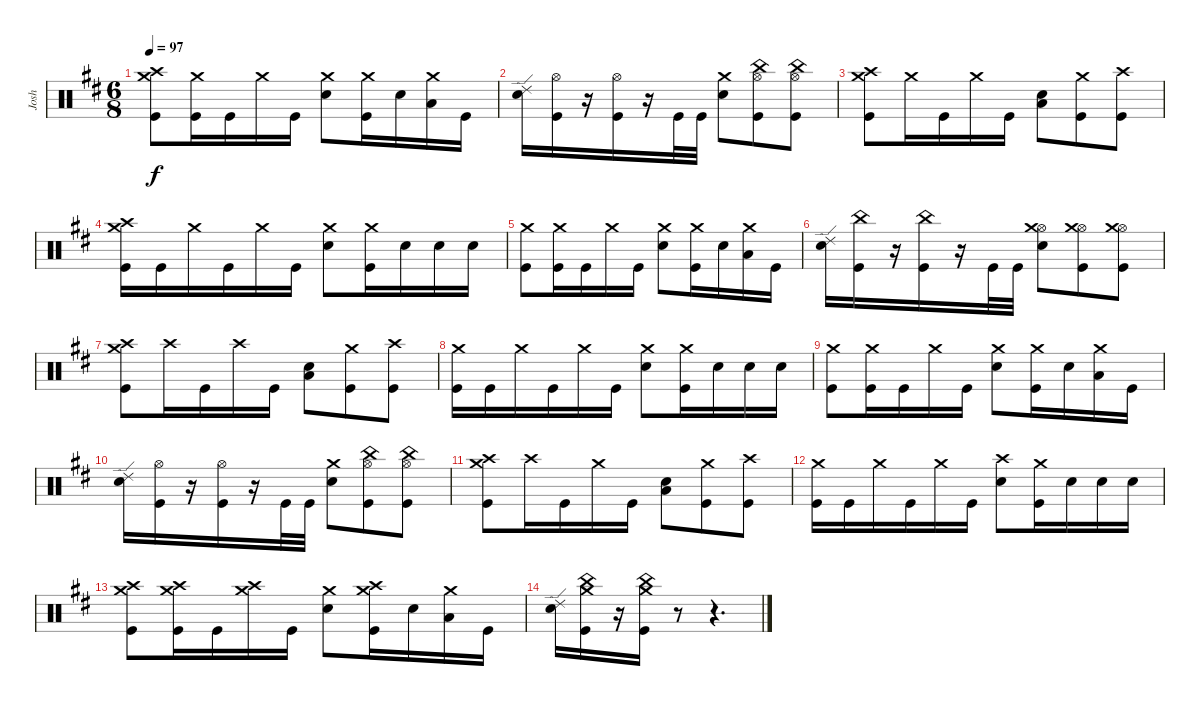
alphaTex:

\track ("Josh" "Josh") {instrument percussion}
\staff {score}
\articulation defaults
\ts (6 8)
\tempo 97
\clef neutral
\ks bminor
("Kick (hit)" "Crash medium (hit)" "Crash high (hit)").8{dy f} ("Kick (hit)" "Crash medium (hit)").16 "Kick (hit)".16 "Crash medium (hit)".16 "Kick (hit)".16 ("Snare (hit) 2" "Crash medium (hit)").8 ("Kick (hit)" "Crash medium (hit)").16 "Snare (hit) 2".16 ("Low Floor Tom (hit)" "Crash medium (hit)").16 "Kick (hit)".16 |
("Snare (hit) 2" "Ride (edge) 2").16 ("Kick (hit)" "Hi-Hat (open)").16 r.16 ("Kick (hit)" "Hi-Hat (open)").16 r.16 "Kick (hit)".32 "Kick (hit)".32 ("Snare (hit) 2" "Crash medium (hit)").8 ("Kick (hit)" "China (hit)" "Hi-Hat (open)").8 ("Kick (hit)" "China (hit)" "Hi-Hat (open)").8 |
("Kick (hit)" "Crash medium (hit)" "Crash high (hit)").8 "Crash medium (hit)".16 "Kick (hit)".16 "Crash medium (hit)".16 "Kick (hit)".16 ("Snare (hit) 2" "Low Floor Tom (hit)").8 ("Kick (hit)" "Crash medium (hit)").8 ("Kick (hit)" "Crash high (hit)").8 |
("Kick (hit)" "Crash medium (hit)" "Crash high (hit)").16 "Kick (hit)".16 "Crash medium (hit)".16 "Kick (hit)".16 "Crash medium (hit)".16 "Kick (hit)".16 ("Snare (hit) 2" "Crash medium (hit)").8 ("Kick (hit)" "Crash medium (hit)").16 "Snare (hit) 2".16 "Snare (hit) 2".16 "Snare (hit) 2".16 |
("Kick (hit)" "Crash medium (hit)").8 ("Kick (hit)" "Crash medium (hit)").16 "Kick (hit)".16 "Crash medium (hit)".16 "Kick (hit)".16 ("Snare (hit) 2" "Crash medium (hit)").8 ("Kick (hit)" "Crash medium (hit)").16 "Snare (hit) 2".16 ("Low Floor Tom (hit)" "Crash medium (hit)").16 "Kick (hit)".16 |
("Snare (hit) 2" "Ride (edge) 2").16 ("Kick (hit)" "China (hit)").16 r.16 ("Kick (hit)" "China (hit)").16 r.16 "Kick (hit)".32 "Kick (hit)".32 ("Snare (hit) 2" "Hi-Hat (open)" "Crash medium (hit)").8 ("Kick (hit)" "Hi-Hat (open)" "Crash medium (hit)").8 ("Kick (hit)" "Hi-Hat (open)" "Crash medium (hit)").8 |
("Kick (hit)" "Crash medium (hit)" "Crash high (hit)").8 "Crash high (hit)".16 "Kick (hit)".16 "Crash high (hit)".16 "Kick (hit)".16 ("Snare (hit) 2" "Low Floor Tom (hit)").8 ("Kick (hit)" "Crash medium (hit)").8 ("Kick (hit)" "Crash high (hit)").8 |
("Kick (hit)" "Crash medium (hit)").16 "Kick (hit)".16 "Crash medium (hit)".16 "Kick (hit)".16 "Crash medium (hit)".16 "Kick (hit)".16 ("Snare (hit) 2" "Crash medium (hit)").8 ("Kick (hit)" "Crash medium (hit)").16 "Snare (hit) 2".16 "Snare (hit) 2".16 "Snare (hit) 2".16 |
("Kick (hit)" "Crash medium (hit)").8 ("Kick (hit)" "Crash medium (hit)").16 "Kick (hit)".16 "Crash medium (hit)".16 "Kick (hit)".16 ("Snare (hit) 2" "Crash medium (hit)").8 ("Kick (hit)" "Crash medium (hit)").16 "Snare (hit) 2".16 ("Low Floor Tom (hit)" "Crash medium (hit)").16 "Kick (hit)".16 |
("Snare (hit) 2" "Ride (edge) 2").16 ("Kick (hit)" "Hi-Hat (open)").16 r.16 ("Kick (hit)" "Hi-Hat (open)").16 r.16 "Kick (hit)".32 "Kick (hit)".32 ("Snare (hit) 2" "Crash medium (hit)").8 ("Kick (hit)" "China (hit)" "Hi-Hat (open)").8 ("Kick (hit)" "China (hit)" "Hi-Hat (open)").8 |
("Kick (hit)" "Crash medium (hit)" "Crash high (hit)").8 "Crash high (hit)".16 "Kick (hit)".16 "Crash medium (hit)".16 "Kick (hit)".16 ("Snare (hit) 2" "Low Floor Tom (hit)").8 ("Kick (hit)" "Crash medium (hit)").8 ("Kick (hit)" "Crash high (hit)").8 |
("Kick (hit)" "Crash medium (hit)").16 "Kick (hit)".16 "Crash medium (hit)".16 "Kick (hit)".16 "Crash medium (hit)".16 "Kick (hit)".16 ("Snare (hit) 2" "Crash high (hit)").8 ("Kick (hit)" "Crash medium (hit)").16 "Snare (hit) 2".16 "Snare (hit) 2".16 "Snare (hit) 2".16 |
("Kick (hit)" "Crash high (hit)" "Crash medium (hit)").8 ("Kick (hit)" "Crash high (hit)" "Crash medium (hit)").16 "Kick (hit)".16 ("Crash high (hit)" "Crash medium (hit)").16 "Kick (hit)".16 ("Snare (hit) 2" "Crash medium (hit)").8 ("Kick (hit)" "Crash medium (hit)" "Crash high (hit)").16 "Snare (hit) 2".16 ("Low Floor Tom (hit)" "Crash medium (hit)").16 "Kick (hit)".16 |
("Snare (hit) 2" "Ride (edge) 2").16 ("Kick (hit)" "China (hit)" "Crash medium (hit)").16 r.16 ("Kick (hit)" "China (hit)" "Crash medium (hit)").16 r.8 r.4{d}
